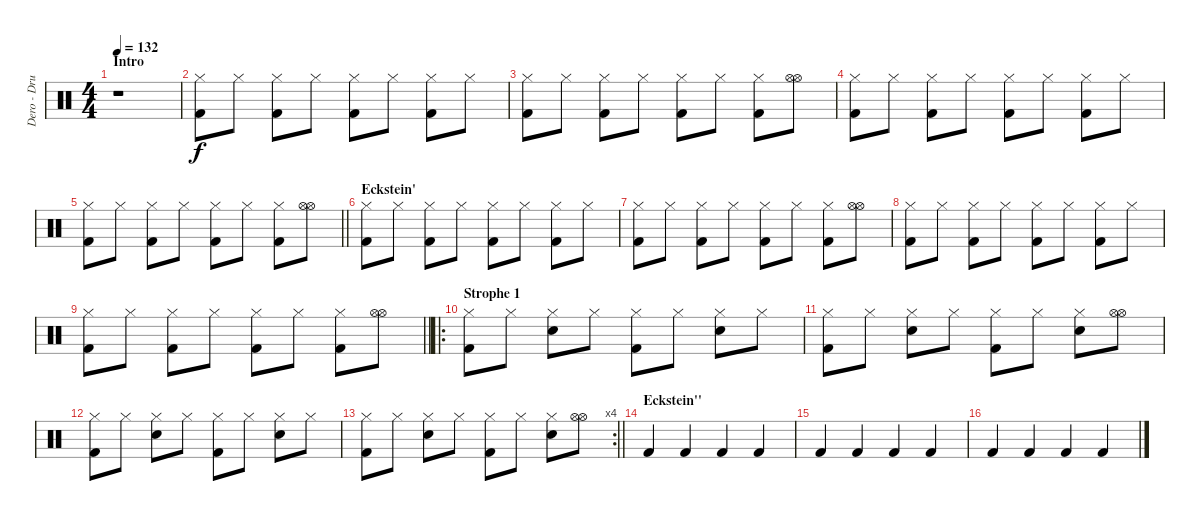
\track ("Dero - Drums" "Dero - Dru") {instrument percussion}
\staff {score}
\articulation defaults
\ts (4 4)
\section ("" "Intro")
\tempo 132
\clef neutral
\ks c
r.1{dy f} |
("Hi-Hat (closed)" "Kick (hit) 2").8 "Hi-Hat (closed)".8 ("Hi-Hat (closed)" "Kick (hit) 2").8 "Hi-Hat (closed)".8 ("Hi-Hat (closed)" "Kick (hit) 2").8 "Hi-Hat (closed)".8 ("Hi-Hat (closed)" "Kick (hit) 2").8 "Hi-Hat (closed)".8 |
("Hi-Hat (closed)" "Kick (hit) 2").8 "Hi-Hat (closed)".8 ("Hi-Hat (closed)" "Kick (hit) 2").8 "Hi-Hat (closed)".8 ("Hi-Hat (closed)" "Kick (hit) 2").8 "Hi-Hat (closed)".8 ("Hi-Hat (closed)" "Kick (hit) 2").8 ("Hi-Hat (open)" "Hi-Hat (open)").8 |
("Hi-Hat (closed)" "Kick (hit) 2").8 "Hi-Hat (closed)".8 ("Hi-Hat (closed)" "Kick (hit) 2").8 "Hi-Hat (closed)".8 ("Hi-Hat (closed)" "Kick (hit) 2").8 "Hi-Hat (closed)".8 ("Hi-Hat (closed)" "Kick (hit) 2").8 "Hi-Hat (closed)".8 |
\barLineRight lightlight
("Hi-Hat (closed)" "Kick (hit) 2").8 "Hi-Hat (closed)".8 ("Hi-Hat (closed)" "Kick (hit) 2").8 "Hi-Hat (closed)".8 ("Hi-Hat (closed)" "Kick (hit) 2").8 "Hi-Hat (closed)".8 ("Hi-Hat (closed)" "Kick (hit) 2").8 ("Hi-Hat (open)" "Hi-Hat (open)").8 |
\section ("" "Eckstein'")
("Hi-Hat (closed)" "Kick (hit) 2").8 "Hi-Hat (closed)".8 ("Hi-Hat (closed)" "Kick (hit) 2").8 "Hi-Hat (closed)".8 ("Hi-Hat (closed)" "Kick (hit) 2").8 "Hi-Hat (closed)".8 ("Hi-Hat (closed)" "Kick (hit) 2").8 "Hi-Hat (closed)".8 |
("Hi-Hat (closed)" "Kick (hit) 2").8 "Hi-Hat (closed)".8 ("Hi-Hat (closed)" "Kick (hit) 2").8 "Hi-Hat (closed)".8 ("Hi-Hat (closed)" "Kick (hit) 2").8 "Hi-Hat (closed)".8 ("Hi-Hat (closed)" "Kick (hit) 2").8 ("Hi-Hat (open)" "Hi-Hat (open)").8 |
("Hi-Hat (closed)" "Kick (hit) 2").8 "Hi-Hat (closed)".8 ("Hi-Hat (closed)" "Kick (hit) 2").8 "Hi-Hat (closed)".8 ("Hi-Hat (closed)" "Kick (hit) 2").8 "Hi-Hat (closed)".8 ("Hi-Hat (closed)" "Kick (hit) 2").8 "Hi-Hat (closed)".8 |
\barLineRight lightlight
("Hi-Hat (closed)" "Kick (hit) 2").8 "Hi-Hat (closed)".8 ("Hi-Hat (closed)" "Kick (hit) 2").8 "Hi-Hat (closed)".8 ("Hi-Hat (closed)" "Kick (hit) 2").8 "Hi-Hat (closed)".8 ("Hi-Hat (closed)" "Kick (hit) 2").8 ("Hi-Hat (open)" "Hi-Hat (open)").8 |
\ro
\section ("" "Strophe 1")
("Hi-Hat (closed)" "Kick (hit) 2").8 "Hi-Hat (closed)".8 ("Hi-Hat (closed)" "Electric Snare (hit)").8 "Hi-Hat (closed)".8 ("Hi-Hat (closed)" "Kick (hit) 2").8 "Hi-Hat (closed)".8 ("Hi-Hat (closed)" "Electric Snare (hit)").8 "Hi-Hat (closed)".8 |
("Hi-Hat (closed)" "Kick (hit) 2").8 "Hi-Hat (closed)".8 ("Hi-Hat (closed)" "Electric Snare (hit)").8 "Hi-Hat (closed)".8 ("Hi-Hat (closed)" "Kick (hit) 2").8 "Hi-Hat (closed)".8 ("Hi-Hat (closed)" "Electric Snare (hit)").8 ("Hi-Hat (open)" "Hi-Hat (open)").8 |
("Hi-Hat (closed)" "Kick (hit) 2").8 "Hi-Hat (closed)".8 ("Hi-Hat (closed)" "Electric Snare (hit)").8 "Hi-Hat (closed)".8 ("Hi-Hat (closed)" "Kick (hit) 2").8 "Hi-Hat (closed)".8 ("Hi-Hat (closed)" "Electric Snare (hit)").8 "Hi-Hat (closed)".8 |
\rc 4
\barLineRight lightlight
("Hi-Hat (closed)" "Kick (hit) 2").8 "Hi-Hat (closed)".8 ("Hi-Hat (closed)" "Electric Snare (hit)").8 "Hi-Hat (closed)".8 ("Hi-Hat (closed)" "Kick (hit) 2").8 "Hi-Hat (closed)".8 ("Hi-Hat (closed)" "Electric Snare (hit)").8 ("Hi-Hat (open)" "Hi-Hat (open)").8 |
\section ("" "Eckstein''")
"Kick (hit) 2".4 "Kick (hit) 2".4 "Kick (hit) 2".4 "Kick (hit) 2".4 |
"Kick (hit) 2".4 "Kick (hit) 2".4 "Kick (hit) 2".4 "Kick (hit) 2".4 |
"Kick (hit) 2".4 "Kick (hit) 2".4 "Kick (hit) 2".4 "Kick (hit) 2".4
